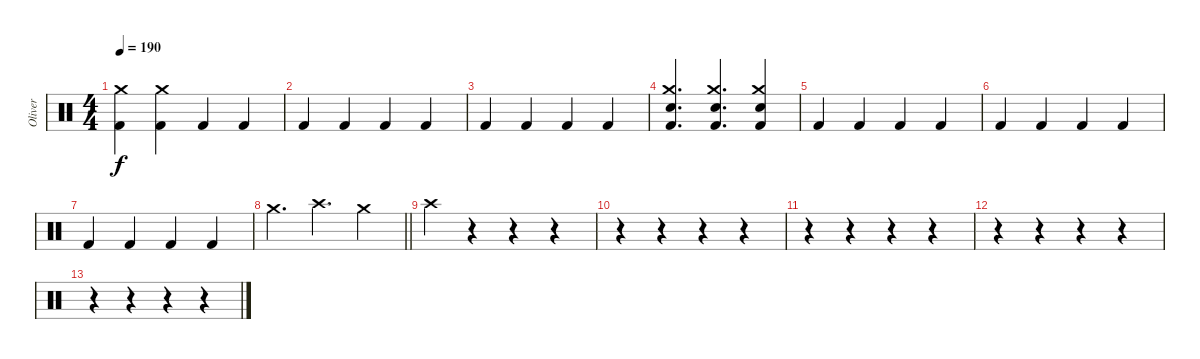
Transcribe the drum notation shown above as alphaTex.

\track ("Oliver" "Oliver") {instrument percussion}
\staff {score}
\articulation defaults
\ts (4 4)
\tempo 190
\clef neutral
\ks c
("Kick (hit) 2" "Crash medium (hit)").4{dy f} ("Kick (hit) 2" "Crash medium (hit)").4 "Kick (hit) 2".4 "Kick (hit) 2".4 |
"Kick (hit) 2".4 "Kick (hit) 2".4 "Kick (hit) 2".4 "Kick (hit) 2".4 |
"Kick (hit) 2".4 "Kick (hit) 2".4 "Kick (hit) 2".4 "Kick (hit) 2".4 |
("Crash medium (hit)" "Kick (hit) 2" "Snare (hit) 2").4{d} ("Crash medium (hit)" "Kick (hit) 2" "Snare (hit) 2").4{d} ("Crash medium (hit)" "Kick (hit) 2" "Snare (hit) 2").4 |
"Kick (hit) 2".4 "Kick (hit) 2".4 "Kick (hit) 2".4 "Kick (hit) 2".4 |
"Kick (hit) 2".4 "Kick (hit) 2".4 "Kick (hit) 2".4 "Kick (hit) 2".4 |
"Kick (hit) 2".4 "Kick (hit) 2".4 "Kick (hit) 2".4 "Kick (hit) 2".4 |
\barLineRight lightlight "Crash medium (hit)".4{d} "Crash high (hit)".4{d} "Crash medium (hit)".4
|
"Crash high (hit)".4 r.4 r.4 r.4 |
r.4 r.4 r.4 r.4 |
r.4 r.4 r.4 r.4 |
r.4 r.4 r.4 r.4 |
r.4 r.4 r.4 r.4
